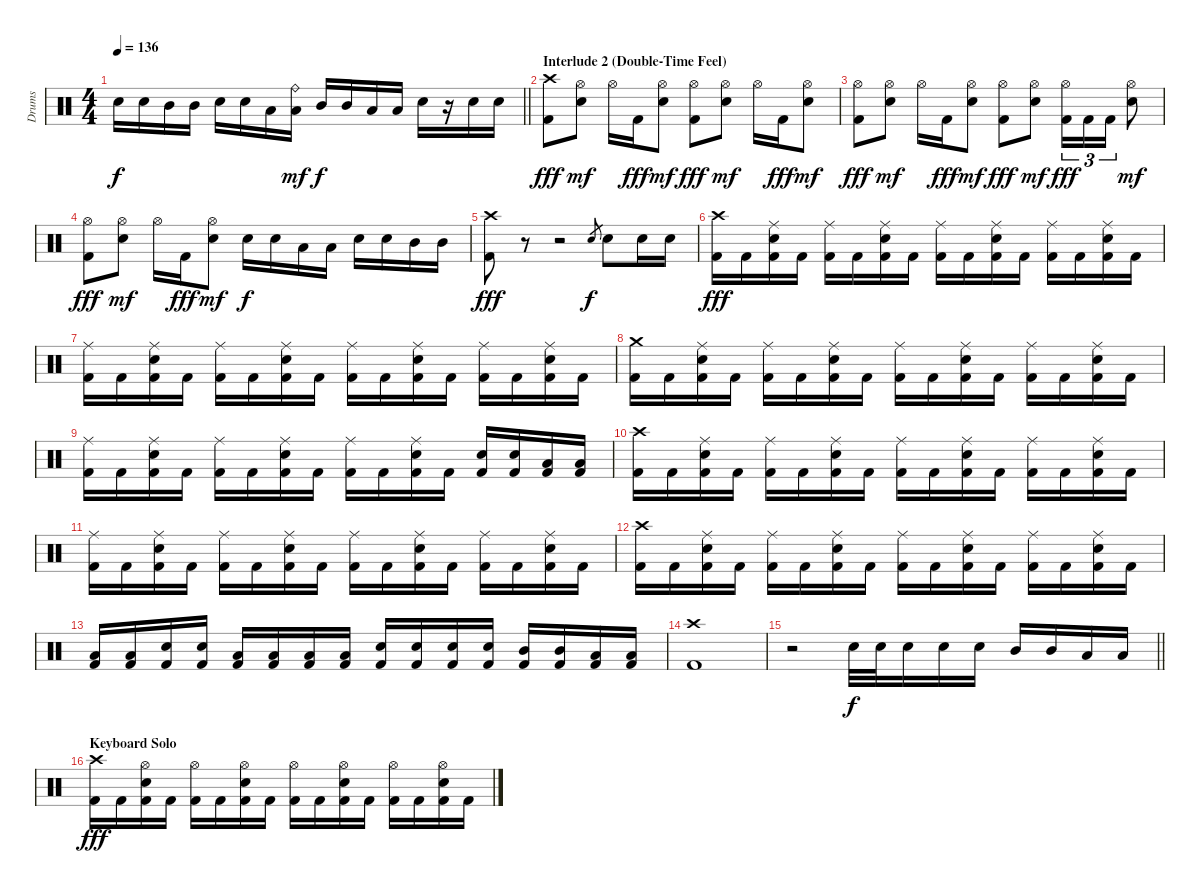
\track ("Drums" "Drums") {instrument percussion}
\staff {score}
\articulation defaults
\ts (4 4)
\tempo 136
\clef neutral
\barLineRight lightlight
\ks c "Electric Snare (hit)".16{dy f} "Electric Snare (hit)".16 "Mid Tom (hit)".16 "Mid Tom (hit)".16 "Electric Snare (hit)".16 "Electric Snare (hit)".16 "Low Tom (hit)".16
("Ride (bell)" "Low Tom (hit)").16{dy mf} "Mid Tom (hit)".16{dy f} "Mid Tom (hit)".16 "Low Tom (hit)".16 "Low Tom (hit)".16 "Electric Snare (hit)".16 r.16 "Electric Snare (hit)".16 "Electric Snare (hit)".16 |
\section ("" "Interlude 2 (Double-Time Feel)")
("Crash high (hit)" "Kick (hit) 2").8{dy fff} ("Hi-Hat (open)" "Electric Snare (hit)").8{dy mf} "Hi-Hat (open)".16 "Kick (hit) 2".16{dy fff} ("Hi-Hat (open)" "Electric Snare (hit)").8{dy mf} ("Hi-Hat (open)" "Kick (hit) 2").8{dy fff} ("Hi-Hat (open)" "Electric Snare (hit)").8{dy mf} "Hi-Hat (open)".16 "Kick (hit) 2".16{dy fff} ("Hi-Hat (open)" "Electric Snare (hit)").8{dy mf} |
("Hi-Hat (open)" "Kick (hit) 2").8{dy fff} ("Hi-Hat (open)" "Electric Snare (hit)").8{dy mf} "Hi-Hat (open)".16 "Kick (hit) 2".16{dy fff} ("Hi-Hat (open)" "Electric Snare (hit)").8{dy mf} ("Hi-Hat (open)" "Kick (hit) 2").8{dy fff} ("Hi-Hat (open)" "Electric Snare (hit)").8{dy mf} ("Hi-Hat (open)" "Kick (hit) 2").16{tu (3 2) dy fff} "Kick (hit) 2".16{tu (3 2)} "Kick (hit) 2".16{tu (3 2)} ("Hi-Hat (open)" "Electric Snare (hit)").8{dy mf} |
("Hi-Hat (open)" "Kick (hit) 2").8{dy fff} ("Hi-Hat (open)" "Electric Snare (hit)").8{dy mf} "Hi-Hat (open)".16 "Kick (hit) 2".16{dy fff} ("Hi-Hat (open)" "Electric Snare (hit)").8{dy mf} "Electric Snare (hit)".16{dy f} "Electric Snare (hit)".16 "Low Tom (hit)".16 "Low Tom (hit)".16 "Electric Snare (hit)".16 "Electric Snare (hit)".16 "Mid Tom (hit)".16 "Mid Tom (hit)".16 |
("Crash high (hit)" "Kick (hit) 2").8{dy fff} r.8 r.2 "Electric Snare (hit)".8{gr dy f} "Electric Snare (hit)".8 "Electric Snare (hit)".16 "Electric Snare (hit)".16 |
("Crash high (hit)" "Kick (hit) 2").16{dy fff} "Kick (hit) 2".16 ("Ride (middle)" "Electric Snare (hit)" "Kick (hit) 2").16 "Kick (hit) 2".16 ("Ride (middle)" "Kick (hit) 2").16 "Kick (hit) 2".16 ("Ride (middle)" "Electric Snare (hit)" "Kick (hit) 2").16 "Kick (hit) 2".16 ("Ride (middle)" "Kick (hit) 2").16 "Kick (hit) 2".16 ("Ride (middle)" "Electric Snare (hit)" "Kick (hit) 2").16 "Kick (hit) 2".16 ("Ride (middle)" "Kick (hit) 2").16 "Kick (hit) 2".16 ("Ride (middle)" "Electric Snare (hit)" "Kick (hit) 2").16 "Kick (hit) 2".16 |
("Ride (middle)" "Kick (hit) 2").16 "Kick (hit) 2".16 ("Ride (middle)" "Electric Snare (hit)" "Kick (hit) 2").16 "Kick (hit) 2".16 ("Ride (middle)" "Kick (hit) 2").16 "Kick (hit) 2".16 ("Ride (middle)" "Electric Snare (hit)" "Kick (hit) 2").16 "Kick (hit) 2".16 ("Ride (middle)" "Kick (hit) 2").16 "Kick (hit) 2".16 ("Ride (middle)" "Electric Snare (hit)" "Kick (hit) 2").16 "Kick (hit) 2".16 ("Ride (middle)" "Kick (hit) 2").16 "Kick (hit) 2".16 ("Ride (middle)" "Electric Snare (hit)" "Kick (hit) 2").16 "Kick (hit) 2".16 |
("Crash medium (hit)" "Kick (hit) 2").16 "Kick (hit) 2".16 ("Ride (middle)" "Electric Snare (hit)" "Kick (hit) 2").16 "Kick (hit) 2".16 ("Ride (middle)" "Kick (hit) 2").16 "Kick (hit) 2".16 ("Ride (middle)" "Electric Snare (hit)" "Kick (hit) 2").16 "Kick (hit) 2".16 ("Ride (middle)" "Kick (hit) 2").16 "Kick (hit) 2".16 ("Ride (middle)" "Electric Snare (hit)" "Kick (hit) 2").16 "Kick (hit) 2".16 ("Ride (middle)" "Kick (hit) 2").16 "Kick (hit) 2".16 ("Ride (middle)" "Electric Snare (hit)" "Kick (hit) 2").16 "Kick (hit) 2".16 |
("Ride (middle)" "Kick (hit) 2").16 "Kick (hit) 2".16 ("Ride (middle)" "Electric Snare (hit)" "Kick (hit) 2").16 "Kick (hit) 2".16 ("Ride (middle)" "Kick (hit) 2").16 "Kick (hit) 2".16 ("Ride (middle)" "Electric Snare (hit)" "Kick (hit) 2").16 "Kick (hit) 2".16 ("Ride (middle)" "Kick (hit) 2").16 "Kick (hit) 2".16 ("Ride (middle)" "Electric Snare (hit)" "Kick (hit) 2").16 "Kick (hit) 2".16 ("Electric Snare (hit)" "Kick (hit) 2").16 ("Electric Snare (hit)" "Kick (hit) 2").16 ("Low Tom (hit)" "Kick (hit) 2").16 ("Low Tom (hit)" "Kick (hit) 2").16 |
("Crash high (hit)" "Kick (hit) 2").16 "Kick (hit) 2".16 ("Ride (middle)" "Electric Snare (hit)" "Kick (hit) 2").16 "Kick (hit) 2".16 ("Ride (middle)" "Kick (hit) 2").16 "Kick (hit) 2".16 ("Ride (middle)" "Electric Snare (hit)" "Kick (hit) 2").16 "Kick (hit) 2".16 ("Ride (middle)" "Kick (hit) 2").16 "Kick (hit) 2".16 ("Ride (middle)" "Electric Snare (hit)" "Kick (hit) 2").16 "Kick (hit) 2".16 ("Ride (middle)" "Kick (hit) 2").16 "Kick (hit) 2".16 ("Ride (middle)" "Electric Snare (hit)" "Kick (hit) 2").16 "Kick (hit) 2".16 |
("Ride (middle)" "Kick (hit) 2").16 "Kick (hit) 2".16 ("Ride (middle)" "Electric Snare (hit)" "Kick (hit) 2").16 "Kick (hit) 2".16 ("Ride (middle)" "Kick (hit) 2").16 "Kick (hit) 2".16 ("Ride (middle)" "Electric Snare (hit)" "Kick (hit) 2").16 "Kick (hit) 2".16 ("Ride (middle)" "Kick (hit) 2").16 "Kick (hit) 2".16 ("Ride (middle)" "Electric Snare (hit)" "Kick (hit) 2").16 "Kick (hit) 2".16 ("Ride (middle)" "Kick (hit) 2").16 "Kick (hit) 2".16 ("Ride (middle)" "Electric Snare (hit)" "Kick (hit) 2").16 "Kick (hit) 2".16 |
("Crash high (hit)" "Kick (hit) 2").16 "Kick (hit) 2".16 ("Ride (middle)" "Electric Snare (hit)" "Kick (hit) 2").16 "Kick (hit) 2".16 ("Ride (middle)" "Kick (hit) 2").16 "Kick (hit) 2".16 ("Ride (middle)" "Electric Snare (hit)" "Kick (hit) 2").16 "Kick (hit) 2".16 ("Ride (middle)" "Kick (hit) 2").16 "Kick (hit) 2".16 ("Ride (middle)" "Electric Snare (hit)" "Kick (hit) 2").16 "Kick (hit) 2".16 ("Ride (middle)" "Kick (hit) 2").16 "Kick (hit) 2".16 ("Ride (middle)" "Electric Snare (hit)" "Kick (hit) 2").16 "Kick (hit) 2".16 |
("Low Tom (hit)" "Kick (hit) 2").16 ("Low Tom (hit)" "Kick (hit) 2").16 ("Electric Snare (hit)" "Kick (hit) 2").16 ("Electric Snare (hit)" "Kick (hit) 2").16 ("Low Tom (hit)" "Kick (hit) 2").16 ("Low Tom (hit)" "Kick (hit) 2").16 ("Low Tom (hit)" "Kick (hit) 2").16 ("Low Tom (hit)" "Kick (hit) 2").16 ("Electric Snare (hit)" "Kick (hit) 2").16 ("Electric Snare (hit)" "Kick (hit) 2").16 ("Electric Snare (hit)" "Kick (hit) 2").16 ("Electric Snare (hit)" "Kick (hit) 2").16 ("Mid Tom (hit)" "Kick (hit) 2").16 ("Mid Tom (hit)" "Kick (hit) 2").16 ("Low Tom (hit)" "Kick (hit) 2").16 ("Low Tom (hit)" "Kick (hit) 2").16 |
("Crash high (hit)" "Kick (hit) 2").1 |
\barLineRight lightlight
r.2 "Electric Snare (hit)".32{dy f} "Electric Snare (hit)".32 "Electric Snare (hit)".16 "Electric Snare (hit)".16 "Electric Snare (hit)".16 "Mid Tom (hit)".16 "Mid Tom (hit)".16 "Low Tom (hit)".16 "Low Tom (hit)".16 |
\section ("" "Keyboard Solo")
("Crash high (hit)" "Kick (hit) 2").16{dy fff} "Kick (hit) 2".16 ("Hi-Hat (open)" "Electric Snare (hit)" "Kick (hit) 2").16 "Kick (hit) 2".16 ("Hi-Hat (open)" "Kick (hit) 2").16 "Kick (hit) 2".16 ("Hi-Hat (open)" "Electric Snare (hit)" "Kick (hit) 2").16 "Kick (hit) 2".16 ("Hi-Hat (open)" "Kick (hit) 2").16 "Kick (hit) 2".16 ("Hi-Hat (open)" "Electric Snare (hit)" "Kick (hit) 2").16 "Kick (hit) 2".16 ("Hi-Hat (open)" "Kick (hit) 2").16 "Kick (hit) 2".16 ("Hi-Hat (open)" "Electric Snare (hit)" "Kick (hit) 2").16 "Kick (hit) 2".16
